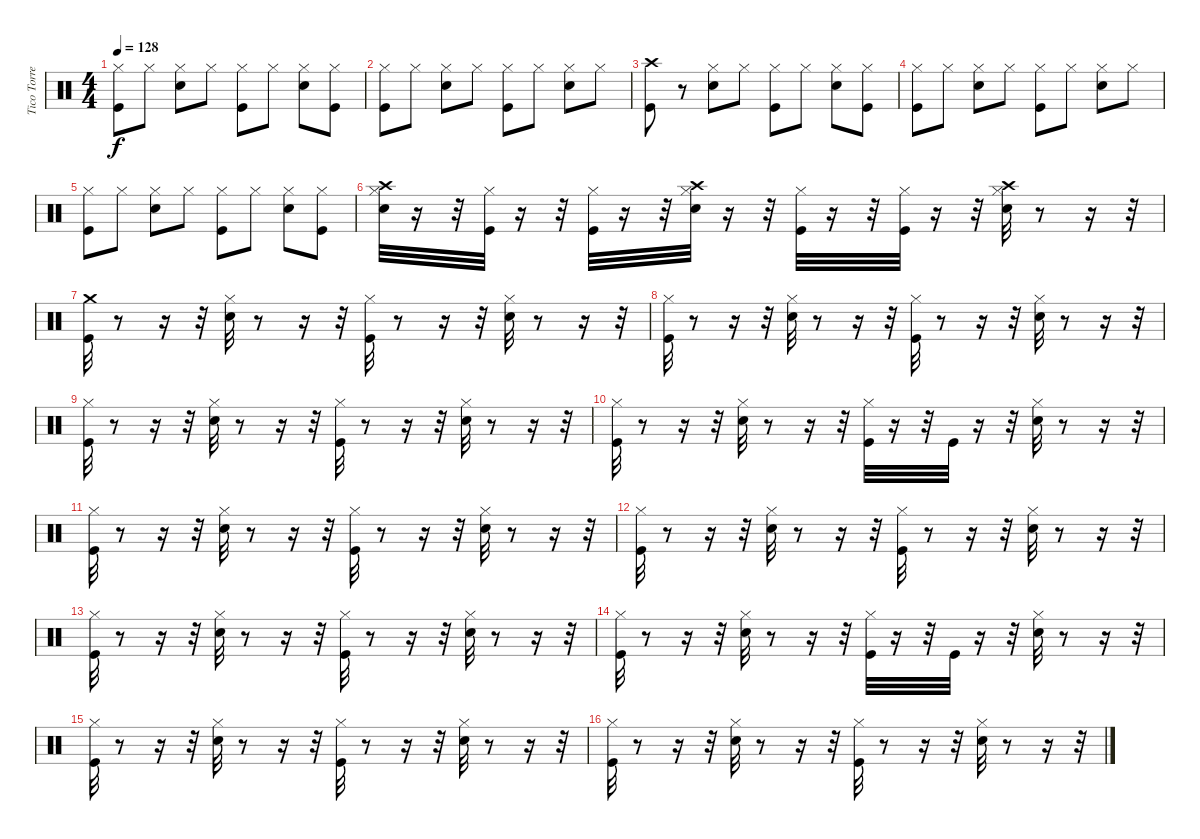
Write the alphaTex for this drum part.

\track ("Tico Torres" "Tico Torre") {instrument percussion}
\staff {score}
\articulation defaults
\ts (4 4)
\tempo 128
\clef neutral
\ks c
("Hi-Hat (closed)" "Kick (hit)").8{dy f} "Hi-Hat (closed)".8 ("Hi-Hat (closed)" "Snare (hit) 2").8 "Hi-Hat (closed)".8 ("Hi-Hat (closed)" "Kick (hit)").8 "Hi-Hat (closed)".8 ("Hi-Hat (closed)" "Snare (hit) 2").8 ("Hi-Hat (closed)" "Kick (hit)").8 |
("Hi-Hat (closed)" "Kick (hit)").8 "Hi-Hat (closed)".8 ("Hi-Hat (closed)" "Snare (hit) 2").8 "Hi-Hat (closed)".8 ("Hi-Hat (closed)" "Kick (hit)").8 "Hi-Hat (closed)".8 ("Hi-Hat (closed)" "Snare (hit) 2").8 "Hi-Hat (closed)".8 |
("Kick (hit)" "Crash high (hit)").8 r.8 ("Hi-Hat (closed)" "Snare (hit) 2").8 "Hi-Hat (closed)".8 ("Hi-Hat (closed)" "Kick (hit)").8 "Hi-Hat (closed)".8 ("Hi-Hat (closed)" "Snare (hit) 2").8 ("Kick (hit)" "Hi-Hat (closed)").8 |
("Hi-Hat (closed)" "Kick (hit)").8 "Hi-Hat (closed)".8 ("Hi-Hat (closed)" "Snare (hit) 2").8 "Hi-Hat (closed)".8 ("Hi-Hat (closed)" "Kick (hit)").8 "Hi-Hat (closed)".8 ("Hi-Hat (closed)" "Snare (hit) 2").8 "Hi-Hat (closed)".8 |
("Hi-Hat (closed)" "Kick (hit)").8 "Hi-Hat (closed)".8 ("Hi-Hat (closed)" "Snare (hit) 2").8 "Hi-Hat (closed)".8 ("Hi-Hat (closed)" "Kick (hit)").8 "Hi-Hat (closed)".8 ("Hi-Hat (closed)" "Snare (hit) 2").8 ("Hi-Hat (closed)" "Kick (hit)").8 |
("Hi-Hat (closed)" "Crash high (hit)" "Snare (hit) 2").32 r.16 r.32 ("Hi-Hat (closed)" "Kick (hit)").32 r.16 r.32 ("Hi-Hat (closed)" "Kick (hit)").32 r.16 r.32 ("Hi-Hat (closed)" "Crash high (hit)" "Snare (hit) 2").32 r.16 r.32 ("Hi-Hat (closed)" "Kick (hit)").32 r.16 r.32 ("Hi-Hat (closed)" "Kick (hit)").32 r.16 r.32 ("Hi-Hat (closed)" "Crash high (hit)" "Snare (hit) 2").32 r.8 r.16 r.32 |
("Kick (hit)" "Crash medium (hit)").32 r.8 r.16 r.32 ("Hi-Hat (closed)" "Snare (hit) 2").32 r.8 r.16 r.32 ("Hi-Hat (closed)" "Kick (hit)").32 r.8 r.16 r.32 ("Hi-Hat (closed)" "Snare (hit) 2").32 r.8 r.16 r.32 |
("Kick (hit)" "Hi-Hat (closed)").32 r.8 r.16 r.32 ("Snare (hit) 2" "Hi-Hat (closed)").32 r.8 r.16 r.32 ("Kick (hit)" "Hi-Hat (closed)").32 r.8 r.16 r.32 ("Snare (hit) 2" "Hi-Hat (closed)").32 r.8 r.16 r.32 |
("Kick (hit)" "Hi-Hat (closed)").32 r.8 r.16 r.32 ("Snare (hit) 2" "Hi-Hat (closed)").32 r.8 r.16 r.32 ("Kick (hit)" "Hi-Hat (closed)").32 r.8 r.16 r.32 ("Snare (hit) 2" "Hi-Hat (closed)").32 r.8 r.16 r.32 |
("Hi-Hat (closed)" "Kick (hit)").32 r.8 r.16 r.32 ("Hi-Hat (closed)" "Snare (hit) 2").32 r.8 r.16 r.32 ("Hi-Hat (closed)" "Kick (hit)").32 r.16 r.32 "Kick (hit)".32 r.16 r.32 ("Hi-Hat (closed)" "Snare (hit) 2").32 r.8 r.16 r.32 |
("Kick (hit)" "Hi-Hat (closed)").32 r.8 r.16 r.32 ("Snare (hit) 2" "Hi-Hat (closed)").32 r.8 r.16 r.32 ("Kick (hit)" "Hi-Hat (closed)").32 r.8 r.16 r.32 ("Snare (hit) 2" "Hi-Hat (closed)").32 r.8 r.16 r.32 |
("Kick (hit)" "Hi-Hat (closed)").32 r.8 r.16 r.32 ("Snare (hit) 2" "Hi-Hat (closed)").32 r.8 r.16 r.32 ("Kick (hit)" "Hi-Hat (closed)").32 r.8 r.16 r.32 ("Snare (hit) 2" "Hi-Hat (closed)").32 r.8 r.16 r.32 |
("Kick (hit)" "Hi-Hat (closed)").32 r.8 r.16 r.32 ("Snare (hit) 2" "Hi-Hat (closed)").32 r.8 r.16 r.32 ("Kick (hit)" "Hi-Hat (closed)").32 r.8 r.16 r.32 ("Snare (hit) 2" "Hi-Hat (closed)").32 r.8 r.16 r.32 |
("Kick (hit)" "Hi-Hat (closed)").32 r.8 r.16 r.32 ("Snare (hit) 2" "Hi-Hat (closed)").32 r.8 r.16 r.32 ("Kick (hit)" "Hi-Hat (closed)").32 r.16 r.32 "Kick (hit)".32 r.16 r.32 ("Snare (hit) 2" "Hi-Hat (closed)").32 r.8 r.16 r.32 |
("Kick (hit)" "Hi-Hat (closed)").32 r.8 r.16 r.32 ("Snare (hit) 2" "Hi-Hat (closed)").32 r.8 r.16 r.32 ("Kick (hit)" "Hi-Hat (closed)").32 r.8 r.16 r.32 ("Snare (hit) 2" "Hi-Hat (closed)").32 r.8 r.16 r.32 |
("Kick (hit)" "Hi-Hat (closed)").32 r.8 r.16 r.32 ("Snare (hit) 2" "Hi-Hat (closed)").32 r.8 r.16 r.32 ("Kick (hit)" "Hi-Hat (closed)").32 r.8 r.16 r.32 ("Snare (hit) 2" "Hi-Hat (closed)").32 r.8 r.16 r.32
